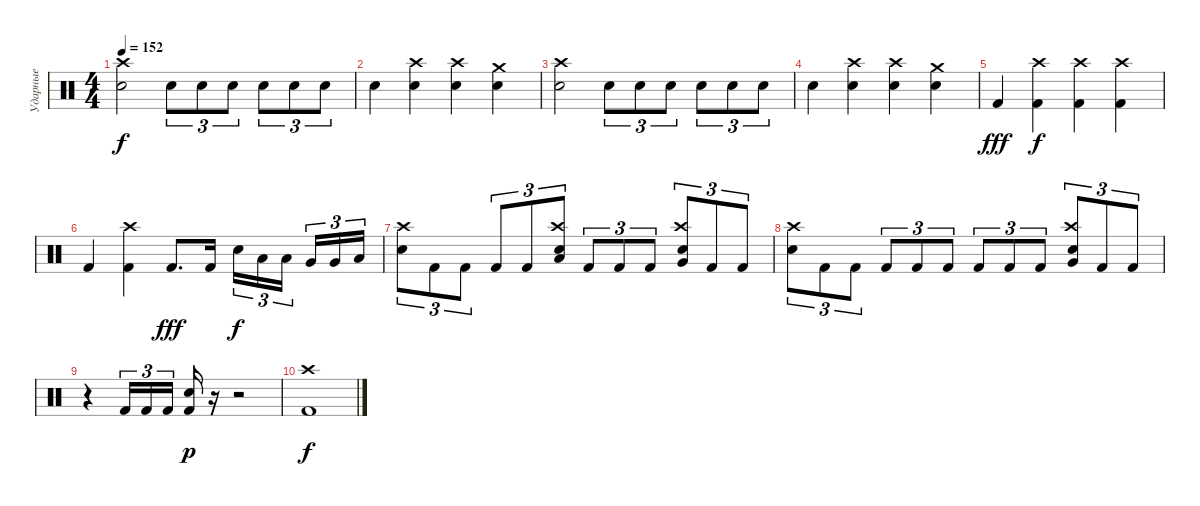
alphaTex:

\track ("Ударные" "Ударные") {instrument percussion}
\staff {score}
\articulation defaults
\ts (4 4)
\tempo 152
\clef neutral
\ks c
("Electric Snare (hit)" "Crash high (hit)").2{dy f} "Electric Snare (hit)".8{tu (3 2)} "Electric Snare (hit)".8{tu (3 2)} "Electric Snare (hit)".8{tu (3 2)} "Electric Snare (hit)".8{tu (3 2)} "Electric Snare (hit)".8{tu (3 2)} "Electric Snare (hit)".8{tu (3 2)} |
"Electric Snare (hit)".4 ("Electric Snare (hit)" "Crash high (hit)").4 ("Electric Snare (hit)" "Crash high (hit)").4 ("Electric Snare (hit)" "Crash medium (hit)").4 |
("Electric Snare (hit)" "Crash high (hit)").2 "Electric Snare (hit)".8{tu (3 2)} "Electric Snare (hit)".8{tu (3 2)} "Electric Snare (hit)".8{tu (3 2)} "Electric Snare (hit)".8{tu (3 2)} "Electric Snare (hit)".8{tu (3 2)} "Electric Snare (hit)".8{tu (3 2)} |
"Electric Snare (hit)".4 ("Electric Snare (hit)" "Crash high (hit)").4 ("Electric Snare (hit)" "Crash high (hit)").4 ("Electric Snare (hit)" "Crash medium (hit)").4 |
"Kick (hit) 2".4{dy fff} ("Kick (hit) 2" "Crash high (hit)").4{dy f} ("Kick (hit) 2" "Crash high (hit)").4 ("Kick (hit) 2" "Crash high (hit)").4 |
"Kick (hit) 2".4 ("Kick (hit) 2" "Crash high (hit)").4 "Kick (hit) 2".8{d dy fff} "Kick (hit) 2".16 "Electric Snare (hit)".16{tu (3 2) dy f} "Low Tom (hit)".16{tu (3 2)} "Low Tom (hit)".16{tu (3 2) beam splitsecondary} "Very Low Tom (hit)".16{tu (3 2)} "Very Low Tom (hit)".16{tu (3 2)} "Low Floor Tom (hit)".16{tu (3 2)} |
("Electric Snare (hit)" "Crash high (hit)").8{tu (3 2)} "Kick (hit) 2".8{tu (3 2)} "Kick (hit) 2".8{tu (3 2)} "Kick (hit) 2".8{tu (3 2)} "Kick (hit) 2".8{tu (3 2)} ("Low Tom (hit)" "Electric Snare (hit)" "Crash high (hit)").8{tu (3 2)} "Kick (hit) 2".8{tu (3 2)} "Kick (hit) 2".8{tu (3 2)} "Kick (hit) 2".8{tu (3 2)} ("Very Low Tom (hit)" "Electric Snare (hit)" "Crash high (hit)").8{tu (3 2)} "Kick (hit) 2".8{tu (3 2)} "Kick (hit) 2".8{tu (3 2)} |
("Electric Snare (hit)" "Crash high (hit)").8{tu (3 2)} "Kick (hit) 2".8{tu (3 2)} "Kick (hit) 2".8{tu (3 2)} "Kick (hit) 2".8{tu (3 2)} "Kick (hit) 2".8{tu (3 2)} "Kick (hit) 2".8{tu (3 2)} "Kick (hit) 2".8{tu (3 2)} "Kick (hit) 2".8{tu (3 2)} "Kick (hit) 2".8{tu (3 2)} ("Very Low Tom (hit)" "Electric Snare (hit)" "Crash high (hit)").8{tu (3 2)} "Kick (hit) 2".8{tu (3 2)} "Kick (hit) 2".8{tu (3 2)} |
r.4 "Kick (hit) 2".16{tu (3 2)} "Kick (hit) 2".16{tu (3 2)} "Kick (hit) 2".16{tu (3 2) beam splitsecondary} ("Kick (hit) 2" "Electric Snare (hit)").16{dy p} r.16 r.2 |
("Kick (hit) 2" "Crash high (hit)").1{dy f}
